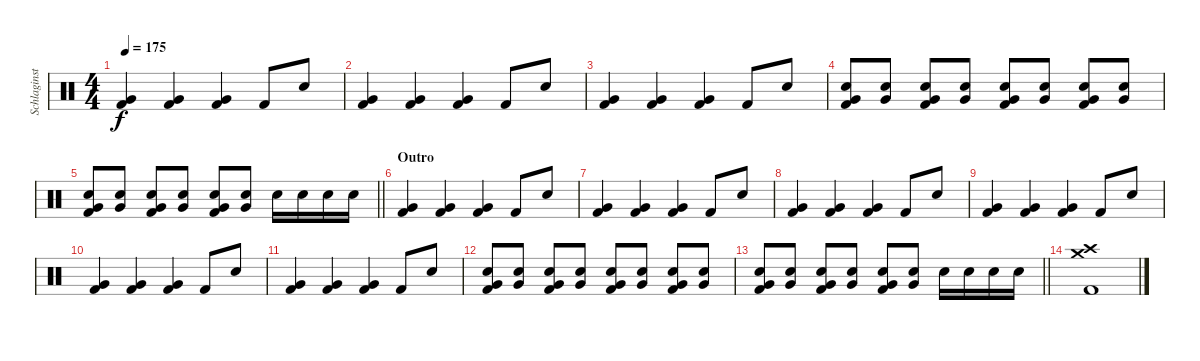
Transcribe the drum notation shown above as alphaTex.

\track ("Schlaginstrumente - Auswahl" "Schlaginst") {instrument percussion}
\staff {score}
\articulation defaults
\ts (4 4)
\tempo 175
\clef neutral
\ks c
("Very Low Tom (hit)" "Kick (hit) 2").4{dy f} ("Very Low Tom (hit)" "Kick (hit) 2").4 ("Very Low Tom (hit)" "Kick (hit) 2").4 "Kick (hit) 2".8 "Snare (hit) 2".8 |
("Very Low Tom (hit)" "Kick (hit) 2").4 ("Very Low Tom (hit)" "Kick (hit) 2").4 ("Very Low Tom (hit)" "Kick (hit) 2").4 "Kick (hit) 2".8 "Snare (hit) 2".8 |
("Very Low Tom (hit)" "Kick (hit) 2").4 ("Very Low Tom (hit)" "Kick (hit) 2").4 ("Very Low Tom (hit)" "Kick (hit) 2").4 "Kick (hit) 2".8 "Snare (hit) 2".8 |
("Very Low Tom (hit)" "Snare (hit) 2" "Kick (hit) 2").8 ("Very Low Tom (hit)" "Snare (hit) 2").8 ("Very Low Tom (hit)" "Snare (hit) 2" "Kick (hit) 2").8 ("Very Low Tom (hit)" "Snare (hit) 2").8 ("Very Low Tom (hit)" "Snare (hit) 2" "Kick (hit) 2").8 ("Very Low Tom (hit)" "Snare (hit) 2").8 ("Very Low Tom (hit)" "Snare (hit) 2" "Kick (hit) 2").8 ("Very Low Tom (hit)" "Snare (hit) 2").8 |
\barLineRight lightlight
("Very Low Tom (hit)" "Snare (hit) 2" "Kick (hit) 2").8 ("Very Low Tom (hit)" "Snare (hit) 2").8 ("Very Low Tom (hit)" "Snare (hit) 2" "Kick (hit) 2").8 ("Very Low Tom (hit)" "Snare (hit) 2").8 ("Very Low Tom (hit)" "Snare (hit) 2" "Kick (hit) 2").8 ("Very Low Tom (hit)" "Snare (hit) 2").8 "Snare (hit) 2".16 "Snare (hit) 2".16 "Snare (hit) 2".16 "Snare (hit) 2".16 |
\section ("" "Outro")
("Very Low Tom (hit)" "Kick (hit) 2").4 ("Very Low Tom (hit)" "Kick (hit) 2").4 ("Very Low Tom (hit)" "Kick (hit) 2").4 "Kick (hit) 2".8 "Snare (hit) 2".8 |
("Very Low Tom (hit)" "Kick (hit) 2").4 ("Very Low Tom (hit)" "Kick (hit) 2").4 ("Very Low Tom (hit)" "Kick (hit) 2").4 "Kick (hit) 2".8 "Snare (hit) 2".8 |
("Very Low Tom (hit)" "Kick (hit) 2").4 ("Very Low Tom (hit)" "Kick (hit) 2").4 ("Very Low Tom (hit)" "Kick (hit) 2").4 "Kick (hit) 2".8 "Snare (hit) 2".8 |
("Very Low Tom (hit)" "Kick (hit) 2").4 ("Very Low Tom (hit)" "Kick (hit) 2").4 ("Very Low Tom (hit)" "Kick (hit) 2").4 "Kick (hit) 2".8 "Snare (hit) 2".8 |
("Very Low Tom (hit)" "Kick (hit) 2").4 ("Very Low Tom (hit)" "Kick (hit) 2").4 ("Very Low Tom (hit)" "Kick (hit) 2").4 "Kick (hit) 2".8 "Snare (hit) 2".8 |
("Very Low Tom (hit)" "Kick (hit) 2").4 ("Very Low Tom (hit)" "Kick (hit) 2").4 ("Very Low Tom (hit)" "Kick (hit) 2").4 "Kick (hit) 2".8 "Snare (hit) 2".8 |
("Very Low Tom (hit)" "Snare (hit) 2" "Kick (hit) 2").8 ("Very Low Tom (hit)" "Snare (hit) 2").8 ("Very Low Tom (hit)" "Snare (hit) 2" "Kick (hit) 2").8 ("Very Low Tom (hit)" "Snare (hit) 2").8 ("Very Low Tom (hit)" "Snare (hit) 2" "Kick (hit) 2").8 ("Very Low Tom (hit)" "Snare (hit) 2").8 ("Very Low Tom (hit)" "Snare (hit) 2" "Kick (hit) 2").8 ("Very Low Tom (hit)" "Snare (hit) 2").8 |
\barLineRight lightlight
("Very Low Tom (hit)" "Snare (hit) 2" "Kick (hit) 2").8 ("Very Low Tom (hit)" "Snare (hit) 2").8 ("Very Low Tom (hit)" "Snare (hit) 2" "Kick (hit) 2").8 ("Very Low Tom (hit)" "Snare (hit) 2").8 ("Very Low Tom (hit)" "Snare (hit) 2" "Kick (hit) 2").8 ("Very Low Tom (hit)" "Snare (hit) 2").8 "Snare (hit) 2".16 "Snare (hit) 2".16 "Snare (hit) 2".16 "Snare (hit) 2".16 |
("Crash medium (hit)" "Crash high (hit)" "Kick (hit) 2").1
